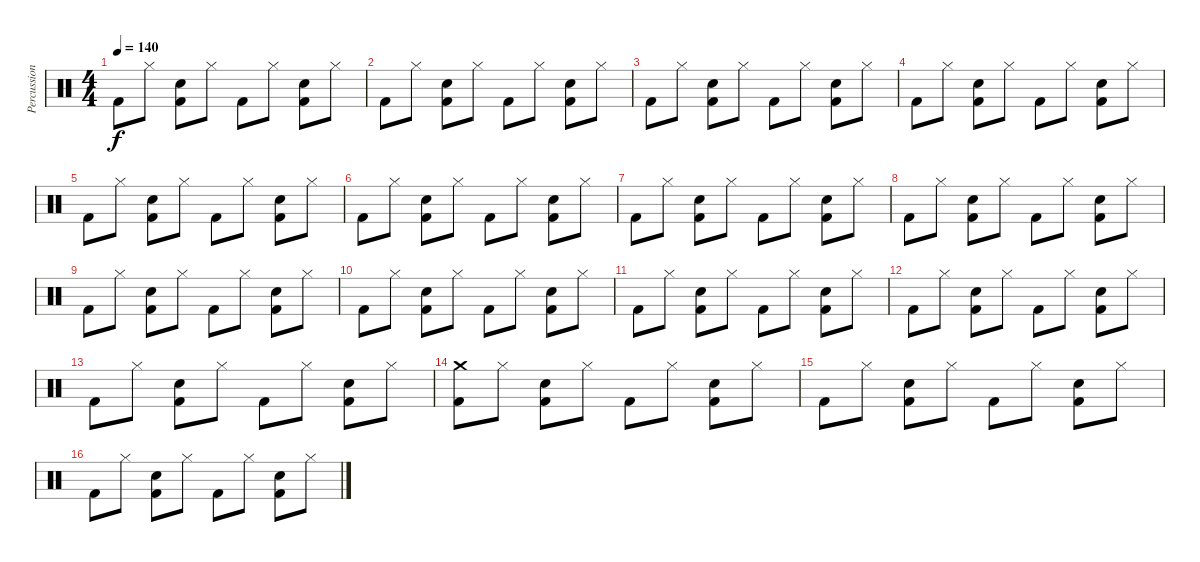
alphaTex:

\track ("Percussion" "Percussion") {instrument percussion}
\staff {score}
\articulation defaults
\ts (4 4)
\tempo 140
\clef neutral
\ks c "Kick (hit) 2".8{dy f} "Hi-Hat (closed)".8
("Electric Snare (hit)" "Kick (hit) 2").8 "Hi-Hat (closed)".8 "Kick (hit) 2".8 "Hi-Hat (closed)".8 ("Electric Snare (hit)" "Kick (hit) 2").8 "Hi-Hat (closed)".8 |
"Kick (hit) 2".8 "Hi-Hat (closed)".8 ("Electric Snare (hit)" "Kick (hit) 2").8 "Hi-Hat (closed)".8 "Kick (hit) 2".8 "Hi-Hat (closed)".8 ("Electric Snare (hit)" "Kick (hit) 2").8 "Hi-Hat (closed)".8 |
"Kick (hit) 2".8 "Hi-Hat (closed)".8 ("Electric Snare (hit)" "Kick (hit) 2").8 "Hi-Hat (closed)".8 "Kick (hit) 2".8 "Hi-Hat (closed)".8 ("Electric Snare (hit)" "Kick (hit) 2").8 "Hi-Hat (closed)".8 |
"Kick (hit) 2".8 "Hi-Hat (closed)".8 ("Electric Snare (hit)" "Kick (hit) 2").8 "Hi-Hat (closed)".8 "Kick (hit) 2".8 "Hi-Hat (closed)".8 ("Electric Snare (hit)" "Kick (hit) 2").8 "Hi-Hat (closed)".8 |
"Kick (hit) 2".8 "Hi-Hat (closed)".8 ("Electric Snare (hit)" "Kick (hit) 2").8 "Hi-Hat (closed)".8 "Kick (hit) 2".8 "Hi-Hat (closed)".8 ("Electric Snare (hit)" "Kick (hit) 2").8 "Hi-Hat (closed)".8 |
"Kick (hit) 2".8 "Hi-Hat (closed)".8 ("Electric Snare (hit)" "Kick (hit) 2").8 "Hi-Hat (closed)".8 "Kick (hit) 2".8 "Hi-Hat (closed)".8 ("Electric Snare (hit)" "Kick (hit) 2").8 "Hi-Hat (closed)".8 |
"Kick (hit) 2".8 "Hi-Hat (closed)".8 ("Electric Snare (hit)" "Kick (hit) 2").8 "Hi-Hat (closed)".8 "Kick (hit) 2".8 "Hi-Hat (closed)".8 ("Electric Snare (hit)" "Kick (hit) 2").8 "Hi-Hat (closed)".8 |
"Kick (hit) 2".8 "Hi-Hat (closed)".8 ("Electric Snare (hit)" "Kick (hit) 2").8 "Hi-Hat (closed)".8 "Kick (hit) 2".8 "Hi-Hat (closed)".8 ("Electric Snare (hit)" "Kick (hit) 2").8 "Hi-Hat (closed)".8 |
"Kick (hit) 2".8 "Hi-Hat (closed)".8 ("Electric Snare (hit)" "Kick (hit) 2").8 "Hi-Hat (closed)".8 "Kick (hit) 2".8 "Hi-Hat (closed)".8 ("Electric Snare (hit)" "Kick (hit) 2").8 "Hi-Hat (closed)".8 |
"Kick (hit) 2".8 "Hi-Hat (closed)".8 ("Electric Snare (hit)" "Kick (hit) 2").8 "Hi-Hat (closed)".8 "Kick (hit) 2".8 "Hi-Hat (closed)".8 ("Electric Snare (hit)" "Kick (hit) 2").8 "Hi-Hat (closed)".8 |
"Kick (hit) 2".8 "Hi-Hat (closed)".8 ("Electric Snare (hit)" "Kick (hit) 2").8 "Hi-Hat (closed)".8 "Kick (hit) 2".8 "Hi-Hat (closed)".8 ("Electric Snare (hit)" "Kick (hit) 2").8 "Hi-Hat (closed)".8 |
"Kick (hit) 2".8 "Hi-Hat (closed)".8 ("Electric Snare (hit)" "Kick (hit) 2").8 "Hi-Hat (closed)".8 "Kick (hit) 2".8 "Hi-Hat (closed)".8 ("Electric Snare (hit)" "Kick (hit) 2").8 "Hi-Hat (closed)".8 |
"Kick (hit) 2".8 "Hi-Hat (closed)".8 ("Electric Snare (hit)" "Kick (hit) 2").8 "Hi-Hat (closed)".8 "Kick (hit) 2".8 "Hi-Hat (closed)".8 ("Electric Snare (hit)" "Kick (hit) 2").8 "Hi-Hat (closed)".8 |
("Crash medium (hit)" "Kick (hit) 2").8 "Hi-Hat (closed)".8 ("Electric Snare (hit)" "Kick (hit) 2").8 "Hi-Hat (closed)".8 "Kick (hit) 2".8 "Hi-Hat (closed)".8 ("Electric Snare (hit)" "Kick (hit) 2").8 "Hi-Hat (closed)".8 |
"Kick (hit) 2".8 "Hi-Hat (closed)".8 ("Electric Snare (hit)" "Kick (hit) 2").8 "Hi-Hat (closed)".8 "Kick (hit) 2".8 "Hi-Hat (closed)".8 ("Electric Snare (hit)" "Kick (hit) 2").8 "Hi-Hat (closed)".8 |
"Kick (hit) 2".8 "Hi-Hat (closed)".8 ("Electric Snare (hit)" "Kick (hit) 2").8 "Hi-Hat (closed)".8 "Kick (hit) 2".8 "Hi-Hat (closed)".8 ("Electric Snare (hit)" "Kick (hit) 2").8 "Hi-Hat (closed)".8
